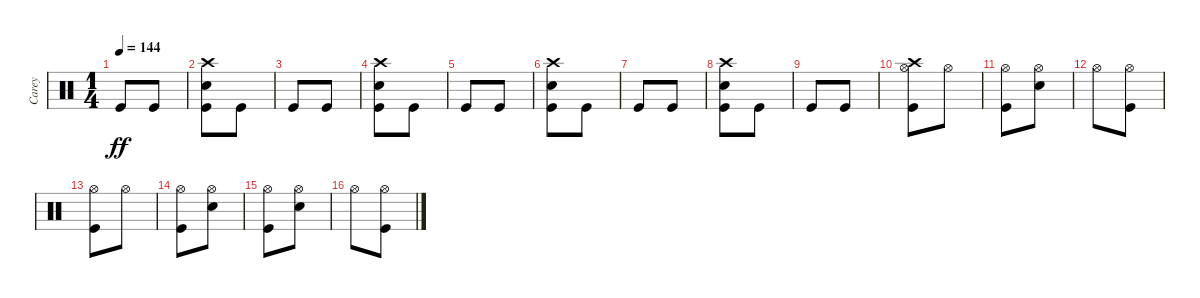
\track ("Carey" "Carey") {instrument percussion}
\staff {score}
\articulation defaults
\ts (1 4)
\tempo 144
\clef neutral
\ks c "Kick (hit)".8{dy ff} "Kick (hit)".8
|
("Kick (hit)" "Snare (hit) 2" "Crash high (hit)").8 "Kick (hit)".8 |
"Kick (hit)".8 "Kick (hit)".8 |
("Kick (hit)" "Snare (hit) 2" "Crash high (hit)").8 "Kick (hit)".8 |
"Kick (hit)".8 "Kick (hit)".8 |
("Kick (hit)" "Snare (hit) 2" "Crash high (hit)").8 "Kick (hit)".8 |
"Kick (hit)".8 "Kick (hit)".8 |
("Kick (hit)" "Snare (hit) 2" "Crash high (hit)").8 "Kick (hit)".8 |
"Kick (hit)".8 "Kick (hit)".8 |
("Kick (hit)" "Hi-Hat (open)" "Crash high (hit)").8 "Hi-Hat (open)".8 |
("Kick (hit)" "Hi-Hat (open)").8 ("Snare (hit) 2" "Hi-Hat (open)").8 |
"Hi-Hat (open)".8 ("Kick (hit)" "Hi-Hat (open)").8 |
("Kick (hit)" "Hi-Hat (open)").8 "Hi-Hat (open)".8 |
("Kick (hit)" "Hi-Hat (open)").8 ("Snare (hit) 2" "Hi-Hat (open)").8 |
("Kick (hit)" "Hi-Hat (open)").8 ("Snare (hit) 2" "Hi-Hat (open)").8 |
"Hi-Hat (open)".8 ("Kick (hit)" "Hi-Hat (open)").8
